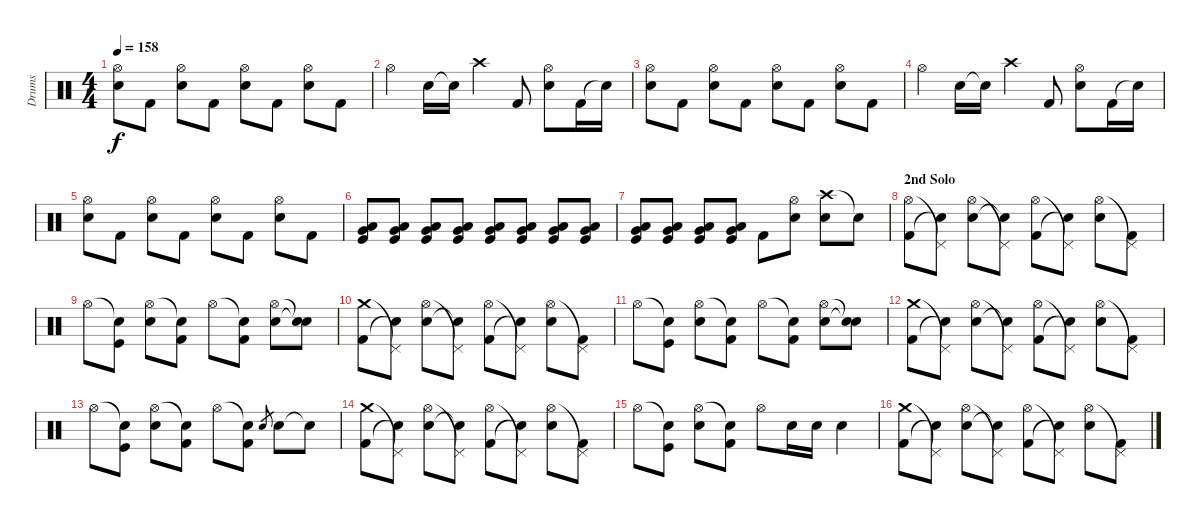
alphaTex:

\track ("Drums" "Drums") {instrument percussion}
\staff {score}
\articulation defaults
\ts (4 4)
\tempo 158
\clef neutral
\ks c
("Hi-Hat (open)" "Electric Snare (hit)").8{dy f} "Kick (hit) 2".8 ("Hi-Hat (open)" "Electric Snare (hit)").8 "Kick (hit) 2".8 ("Hi-Hat (open)" "Electric Snare (hit)").8 "Kick (hit) 2".8 ("Hi-Hat (open)" "Electric Snare (hit)").8 "Kick (hit) 2".8 |
"Hi-Hat (open)".4 "Electric Snare (hit)".16 "Snare (hit)"{t}.16 "Crash high (hit)".4 "Kick (hit) 2".8 ("Hi-Hat (open)" "Electric Snare (hit)").8 "Kick (hit) 2".16 "Snare (hit)"{t}.16 |
("Hi-Hat (open)" "Electric Snare (hit)").8 "Kick (hit) 2".8 ("Hi-Hat (open)" "Electric Snare (hit)").8 "Kick (hit) 2".8 ("Hi-Hat (open)" "Electric Snare (hit)").8 "Kick (hit) 2".8 ("Hi-Hat (open)" "Electric Snare (hit)").8 "Kick (hit) 2".8 |
"Hi-Hat (open)".4 "Electric Snare (hit)".16 "Snare (hit)"{t}.16 "Crash high (hit)".4 "Kick (hit) 2".8 ("Hi-Hat (open)" "Electric Snare (hit)").8 "Kick (hit) 2".16 "Snare (hit)"{t}.16 |
("Hi-Hat (open)" "Electric Snare (hit)").8 "Kick (hit) 2".8 ("Hi-Hat (open)" "Electric Snare (hit)").8 "Kick (hit) 2".8 ("Hi-Hat (open)" "Electric Snare (hit)").8 "Kick (hit) 2".8 ("Hi-Hat (open)" "Electric Snare (hit)").8 "Kick (hit) 2".8 |
("Kick (hit)" "Low Tom (hit)" "Very Low Tom (hit)").8 ("Kick (hit)" "Low Tom (hit)" "Very Low Tom (hit)").8 ("Kick (hit)" "Low Tom (hit)" "Very Low Tom (hit)").8 ("Kick (hit)" "Low Tom (hit)" "Very Low Tom (hit)").8 ("Kick (hit)" "Low Tom (hit)" "Very Low Tom (hit)").8 ("Kick (hit)" "Low Tom (hit)" "Very Low Tom (hit)").8 ("Kick (hit)" "Low Tom (hit)" "Very Low Tom (hit)").8 ("Kick (hit)" "Low Tom (hit)" "Very Low Tom (hit)").8 |
("Kick (hit)" "Very Low Tom (hit)" "Low Tom (hit)").8 ("Kick (hit)" "Very Low Tom (hit)" "Low Tom (hit)").8 ("Kick (hit)" "Very Low Tom (hit)" "Low Tom (hit)").8 ("Kick (hit)" "Very Low Tom (hit)" "Low Tom (hit)").8 "Kick (hit) 2".8 ("Hi-Hat (open)" "Electric Snare (hit)").8 ("Crash high (hit)" "Electric Snare (hit)").8 "Snare (hit)"{t}.8 |
\section ("" "2nd Solo")
("Hi-Hat (open)" "Kick (hit) 2").8 ("Pedal Hi-Hat (hit)"{t} "Electric Snare (hit)"{t}).8 ("Hi-Hat (open)" "Electric Snare (hit)").8 ("Pedal Hi-Hat (hit)"{t} "Snare (hit)"{t}).8 ("Hi-Hat (open)" "Kick (hit) 2").8 ("Pedal Hi-Hat (hit)"{t} "Electric Snare (hit)"{t}).8 ("Hi-Hat (open)" "Electric Snare (hit)").8 ("Pedal Hi-Hat (hit)"{t} "Kick (hit) 2").8 |
"Hi-Hat (open)".8 ("Snare (hit)"{t} "Kick (hit)").8 ("Hi-Hat (open)" "Electric Snare (hit)").8 ("Snare (hit)"{t} "Kick (hit) 2").8 "Hi-Hat (open)".8 ("Snare (hit)"{t} "Kick (hit) 2").8 ("Hi-Hat (open)" "Electric Snare (hit)").8 ("Snare (hit)"{t} "Snare (hit)"{t}).8 |
("Crash medium (hit)" "Kick (hit) 2").8 ("Pedal Hi-Hat (hit)"{t} "Electric Snare (hit)"{t}).8 ("Hi-Hat (open)" "Electric Snare (hit)").8 ("Pedal Hi-Hat (hit)"{t} "Snare (hit)"{t}).8 ("Hi-Hat (open)" "Kick (hit) 2").8 ("Pedal Hi-Hat (hit)"{t} "Electric Snare (hit)"{t}).8 ("Hi-Hat (open)" "Electric Snare (hit)").8 ("Pedal Hi-Hat (hit)"{t} "Kick (hit) 2").8 |
"Hi-Hat (open)".8 ("Snare (hit)"{t} "Kick (hit)").8 ("Hi-Hat (open)" "Electric Snare (hit)").8 ("Snare (hit)"{t} "Kick (hit) 2").8 "Hi-Hat (open)".8 ("Snare (hit)"{t} "Kick (hit) 2").8 ("Hi-Hat (open)" "Electric Snare (hit)").8 ("Snare (hit)"{t} "Snare (hit)"{t}).8 |
("Crash medium (hit)" "Kick (hit) 2").8 ("Pedal Hi-Hat (hit)"{t} "Electric Snare (hit)"{t}).8 ("Hi-Hat (open)" "Electric Snare (hit)").8 ("Pedal Hi-Hat (hit)"{t} "Snare (hit)"{t}).8 ("Hi-Hat (open)" "Kick (hit) 2").8 ("Pedal Hi-Hat (hit)"{t} "Electric Snare (hit)"{t}).8 ("Hi-Hat (open)" "Electric Snare (hit)").8 ("Pedal Hi-Hat (hit)"{t} "Kick (hit) 2").8 |
"Hi-Hat (open)".8 ("Snare (hit)"{t} "Kick (hit)").8 ("Hi-Hat (open)" "Electric Snare (hit)").8 ("Snare (hit)"{t} "Kick (hit) 2").8 "Hi-Hat (open)".8 ("Snare (hit)"{t} "Kick (hit) 2").8 "Electric Snare (hit)".8{gr} "Electric Snare (hit)".8 "Snare (hit)"{t}.8 |
("Crash medium (hit)" "Kick (hit) 2").8 ("Pedal Hi-Hat (hit)"{t} "Electric Snare (hit)"{t}).8 ("Hi-Hat (open)" "Electric Snare (hit)").8 ("Pedal Hi-Hat (hit)"{t} "Snare (hit)"{t}).8 ("Hi-Hat (open)" "Kick (hit) 2").8 ("Pedal Hi-Hat (hit)"{t} "Electric Snare (hit)"{t}).8 ("Hi-Hat (open)" "Electric Snare (hit)").8 ("Pedal Hi-Hat (hit)"{t} "Kick (hit) 2").8 |
"Hi-Hat (open)".8 ("Snare (hit)"{t} "Kick (hit)").8 ("Hi-Hat (open)" "Electric Snare (hit)").8 ("Snare (hit)"{t} "Kick (hit) 2").8 "Hi-Hat (open)".8 "Electric Snare (hit)".16 "Electric Snare (hit)".16 "Electric Snare (hit)".4 |
("Crash medium (hit)" "Kick (hit) 2").8 ("Pedal Hi-Hat (hit)"{t} "Electric Snare (hit)"{t}).8 ("Hi-Hat (open)" "Electric Snare (hit)").8 ("Pedal Hi-Hat (hit)"{t} "Snare (hit)"{t}).8 ("Hi-Hat (open)" "Kick (hit) 2").8 ("Pedal Hi-Hat (hit)"{t} "Electric Snare (hit)"{t}).8 ("Hi-Hat (open)" "Electric Snare (hit)").8 ("Pedal Hi-Hat (hit)"{t} "Kick (hit) 2").8
